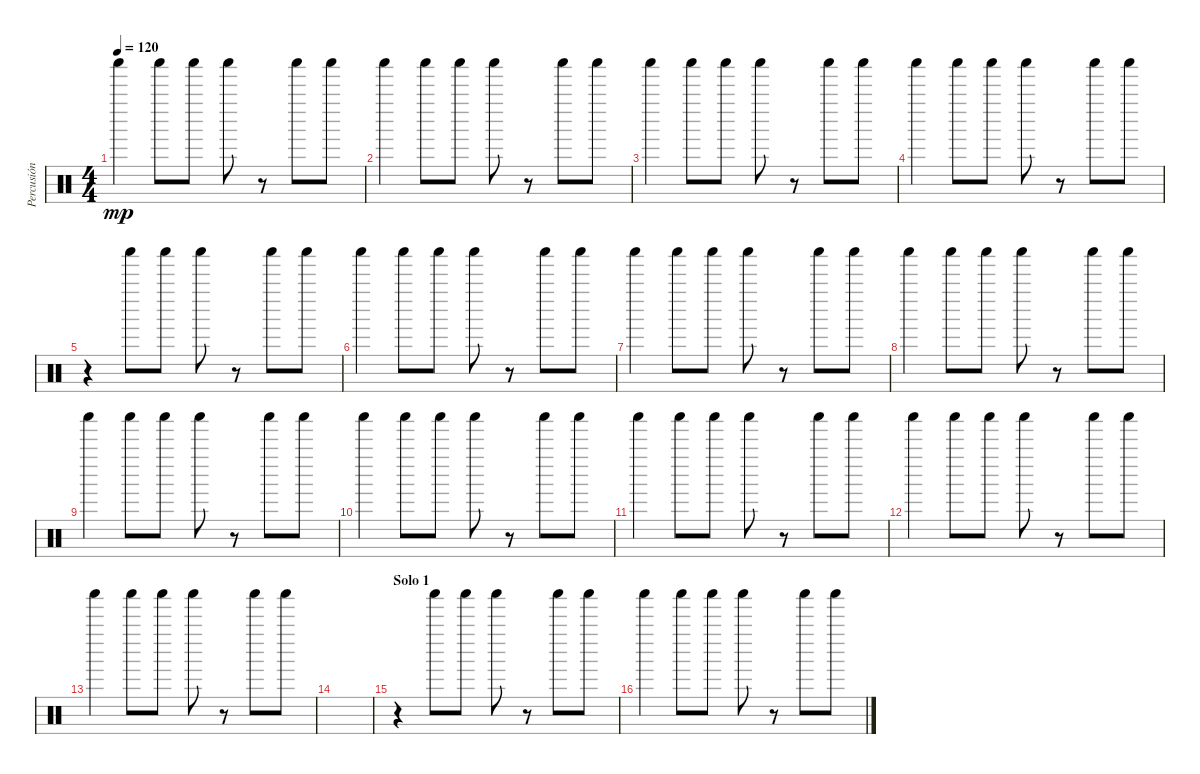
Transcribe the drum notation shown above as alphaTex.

\track ("Percusión" "Percusión") {instrument percussion}
\staff {score}
\articulation defaults
\ts (4 4)
\tempo 120
\clef neutral
\ks c "Shaker (hit)".4{dy mp} "Shaker (hit)".8 "Shaker (hit)".8 "Shaker (hit)".8
r.8 "Shaker (hit)".8 "Shaker (hit)".8 |
"Shaker (hit)".4 "Shaker (hit)".8 "Shaker (hit)".8 "Shaker (hit)".8 r.8 "Shaker (hit)".8 "Shaker (hit)".8 |
"Shaker (hit)".4 "Shaker (hit)".8 "Shaker (hit)".8 "Shaker (hit)".8 r.8 "Shaker (hit)".8 "Shaker (hit)".8 |
"Shaker (hit)".4 "Shaker (hit)".8 "Shaker (hit)".8 "Shaker (hit)".8 r.8 "Shaker (hit)".8 "Shaker (hit)".8 |
r.4 "Shaker (hit)".8 "Shaker (hit)".8 "Shaker (hit)".8 r.8 "Shaker (hit)".8 "Shaker (hit)".8 |
"Shaker (hit)".4 "Shaker (hit)".8 "Shaker (hit)".8 "Shaker (hit)".8 r.8 "Shaker (hit)".8 "Shaker (hit)".8 |
"Shaker (hit)".4 "Shaker (hit)".8 "Shaker (hit)".8 "Shaker (hit)".8 r.8 "Shaker (hit)".8 "Shaker (hit)".8 |
"Shaker (hit)".4 "Shaker (hit)".8 "Shaker (hit)".8 "Shaker (hit)".8 r.8 "Shaker (hit)".8 "Shaker (hit)".8 |
"Shaker (hit)".4 "Shaker (hit)".8 "Shaker (hit)".8 "Shaker (hit)".8 r.8 "Shaker (hit)".8 "Shaker (hit)".8 |
"Shaker (hit)".4 "Shaker (hit)".8 "Shaker (hit)".8 "Shaker (hit)".8 r.8 "Shaker (hit)".8 "Shaker (hit)".8 |
"Shaker (hit)".4 "Shaker (hit)".8 "Shaker (hit)".8 "Shaker (hit)".8 r.8 "Shaker (hit)".8 "Shaker (hit)".8 |
"Shaker (hit)".4 "Shaker (hit)".8 "Shaker (hit)".8 "Shaker (hit)".8 r.8 "Shaker (hit)".8 "Shaker (hit)".8 |
"Shaker (hit)".4 "Shaker (hit)".8 "Shaker (hit)".8 "Shaker (hit)".8 r.8 "Shaker (hit)".8 "Shaker (hit)".8 |
|
\section ("" "Solo 1")
r.4 "Shaker (hit)".8 "Shaker (hit)".8 "Shaker (hit)".8 r.8 "Shaker (hit)".8 "Shaker (hit)".8 |
"Shaker (hit)".4 "Shaker (hit)".8 "Shaker (hit)".8 "Shaker (hit)".8 r.8 "Shaker (hit)".8 "Shaker (hit)".8
